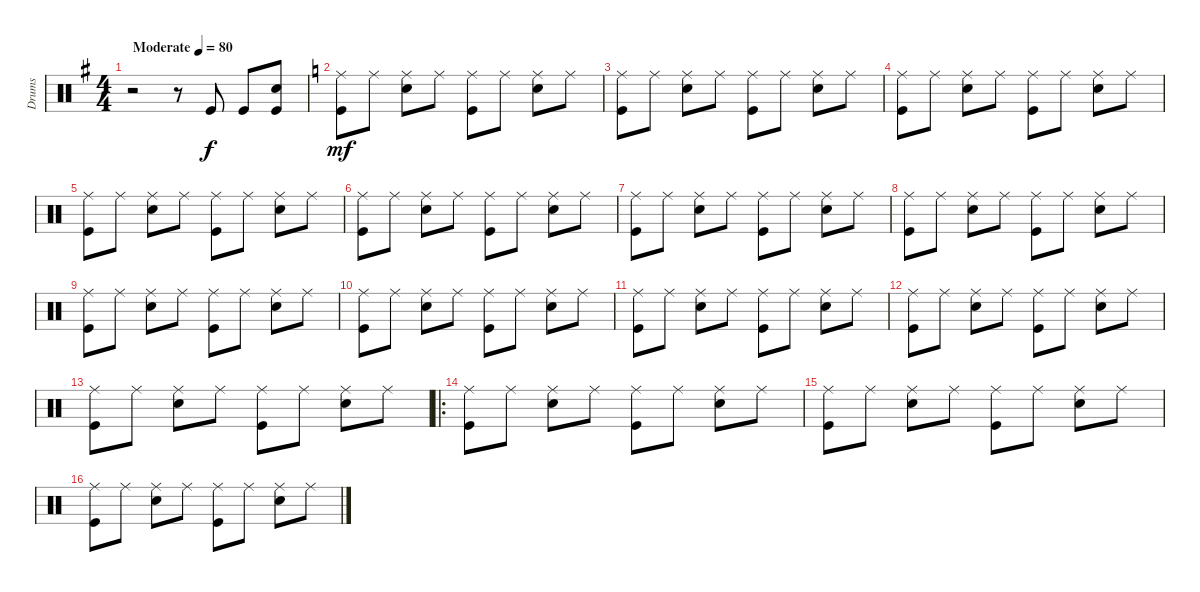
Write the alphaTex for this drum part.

\track ("Drums" "Drums") {instrument percussion}
\staff {score}
\articulation defaults
\ts (4 4)
\tempo (80 "Moderate")
\clef neutral
\ks g
r.2{dy f} r.8 "Kick (hit)".8 "Kick (hit)".8 ("Snare (hit) 2" "Kick (hit)").8 |
\ks c
("Ride (middle)" "Kick (hit)").8{dy mf} "Ride (middle)".8 ("Ride (middle)" "Snare (hit) 2").8 "Ride (middle)".8 ("Ride (middle)" "Kick (hit)").8 "Ride (middle)".8 ("Ride (middle)" "Snare (hit) 2").8 "Ride (middle)".8 |
("Ride (middle)" "Kick (hit)").8 "Ride (middle)".8 ("Ride (middle)" "Snare (hit) 2").8 "Ride (middle)".8 ("Ride (middle)" "Kick (hit)").8 "Ride (middle)".8 ("Ride (middle)" "Snare (hit) 2").8 "Ride (middle)".8 |
("Ride (middle)" "Kick (hit)").8 "Ride (middle)".8 ("Ride (middle)" "Snare (hit) 2").8 "Ride (middle)".8 ("Ride (middle)" "Kick (hit)").8 "Ride (middle)".8 ("Ride (middle)" "Snare (hit) 2").8 "Ride (middle)".8 |
("Ride (middle)" "Kick (hit)").8 "Ride (middle)".8 ("Ride (middle)" "Snare (hit) 2").8 "Ride (middle)".8 ("Ride (middle)" "Kick (hit)").8 "Ride (middle)".8 ("Ride (middle)" "Snare (hit) 2").8 "Ride (middle)".8 |
("Ride (middle)" "Kick (hit)").8 "Ride (middle)".8 ("Ride (middle)" "Snare (hit) 2").8 "Ride (middle)".8 ("Ride (middle)" "Kick (hit)").8 "Ride (middle)".8 ("Ride (middle)" "Snare (hit) 2").8 "Ride (middle)".8 |
("Ride (middle)" "Kick (hit)").8 "Ride (middle)".8 ("Ride (middle)" "Snare (hit) 2").8 "Ride (middle)".8 ("Ride (middle)" "Kick (hit)").8 "Ride (middle)".8 ("Ride (middle)" "Snare (hit) 2").8 "Ride (middle)".8 |
("Ride (middle)" "Kick (hit)").8 "Ride (middle)".8 ("Ride (middle)" "Snare (hit) 2").8 "Ride (middle)".8 ("Ride (middle)" "Kick (hit)").8 "Ride (middle)".8 ("Ride (middle)" "Snare (hit) 2").8 "Ride (middle)".8 |
("Ride (middle)" "Kick (hit)").8 "Ride (middle)".8 ("Ride (middle)" "Snare (hit) 2").8 "Ride (middle)".8 ("Ride (middle)" "Kick (hit)").8 "Ride (middle)".8 ("Ride (middle)" "Snare (hit) 2").8 "Ride (middle)".8 |
("Ride (middle)" "Kick (hit)").8 "Ride (middle)".8 ("Ride (middle)" "Snare (hit) 2").8 "Ride (middle)".8 ("Ride (middle)" "Kick (hit)").8 "Ride (middle)".8 ("Ride (middle)" "Snare (hit) 2").8 "Ride (middle)".8 |
("Ride (middle)" "Kick (hit)").8 "Ride (middle)".8 ("Ride (middle)" "Snare (hit) 2").8 "Ride (middle)".8 ("Ride (middle)" "Kick (hit)").8 "Ride (middle)".8 ("Ride (middle)" "Snare (hit) 2").8 "Ride (middle)".8 |
("Ride (middle)" "Kick (hit)").8 "Ride (middle)".8 ("Ride (middle)" "Snare (hit) 2").8 "Ride (middle)".8 ("Ride (middle)" "Kick (hit)").8 "Ride (middle)".8 ("Ride (middle)" "Snare (hit) 2").8 "Ride (middle)".8 |
("Ride (middle)" "Kick (hit)").8 "Ride (middle)".8 ("Ride (middle)" "Snare (hit) 2").8 "Ride (middle)".8 ("Ride (middle)" "Kick (hit)").8 "Ride (middle)".8 ("Ride (middle)" "Snare (hit) 2").8 "Ride (middle)".8 |
\ro
("Ride (middle)" "Kick (hit)").8 "Ride (middle)".8 ("Ride (middle)" "Snare (hit) 2").8 "Ride (middle)".8 ("Ride (middle)" "Kick (hit)").8 "Ride (middle)".8 ("Ride (middle)" "Snare (hit) 2").8 "Ride (middle)".8 |
("Ride (middle)" "Kick (hit)").8 "Ride (middle)".8 ("Ride (middle)" "Snare (hit) 2").8 "Ride (middle)".8 ("Ride (middle)" "Kick (hit)").8 "Ride (middle)".8 ("Ride (middle)" "Snare (hit) 2").8 "Ride (middle)".8 |
("Ride (middle)" "Kick (hit)").8 "Ride (middle)".8 ("Ride (middle)" "Snare (hit) 2").8 "Ride (middle)".8 ("Ride (middle)" "Kick (hit)").8 "Ride (middle)".8 ("Ride (middle)" "Snare (hit) 2").8 "Ride (middle)".8
